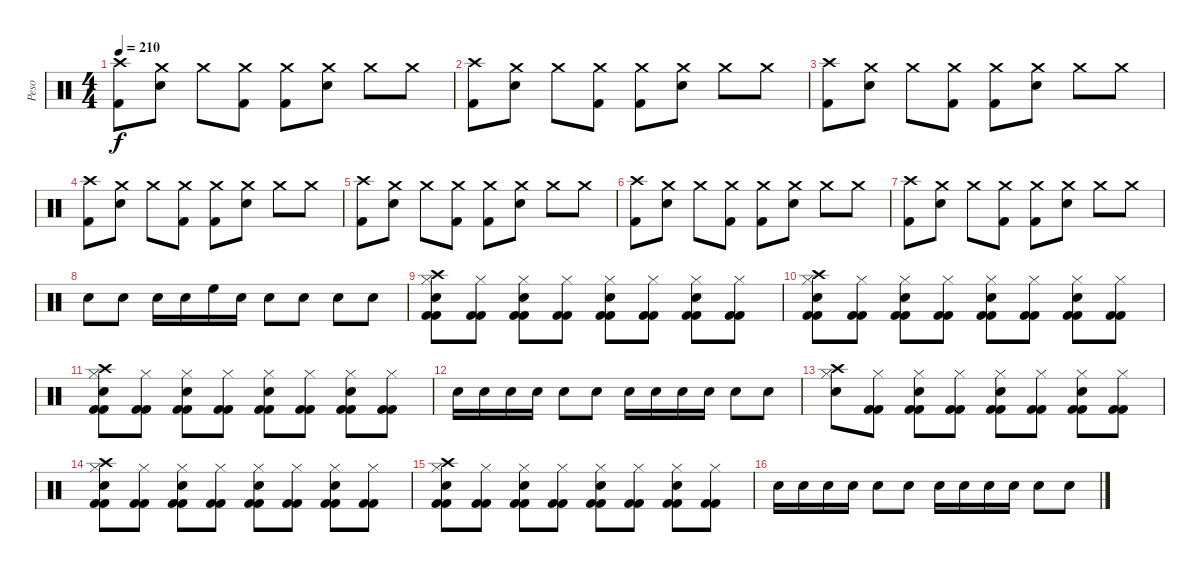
\track ("Peso" "Peso") {instrument percussion}
\staff {score}
\articulation defaults
\ts (4 4)
\tempo 210
\clef neutral
\ks c
("Crash high (hit)" "Kick (hit) 2").8{dy f} ("Crash medium (hit)"{x} "Snare (hit) 2").8 "Crash medium (hit)".8 ("Crash medium (hit)"{x} "Kick (hit) 2").8 ("Crash medium (hit)" "Kick (hit) 2").8 ("Crash medium (hit)"{x} "Snare (hit) 2").8 "Crash medium (hit)".8 "Crash medium (hit)"{x}.8 |
("Crash high (hit)" "Kick (hit) 2").8 ("Crash medium (hit)"{x} "Snare (hit) 2").8 "Crash medium (hit)".8 ("Crash medium (hit)"{x} "Kick (hit) 2").8 ("Crash medium (hit)" "Kick (hit) 2").8 ("Crash medium (hit)"{x} "Snare (hit) 2").8 "Crash medium (hit)".8 "Crash medium (hit)"{x}.8 |
("Crash high (hit)" "Kick (hit) 2").8 ("Crash medium (hit)"{x} "Snare (hit) 2").8 "Crash medium (hit)".8 ("Crash medium (hit)"{x} "Kick (hit) 2").8 ("Crash medium (hit)" "Kick (hit) 2").8 ("Crash medium (hit)"{x} "Snare (hit) 2").8 "Crash medium (hit)".8 "Crash medium (hit)"{x}.8 |
("Crash high (hit)" "Kick (hit) 2").8 ("Crash medium (hit)"{x} "Snare (hit) 2").8 "Crash medium (hit)".8 ("Crash medium (hit)"{x} "Kick (hit) 2").8 ("Crash medium (hit)" "Kick (hit) 2").8 ("Crash medium (hit)"{x} "Snare (hit) 2").8 "Crash medium (hit)".8 "Crash medium (hit)"{x}.8 |
("Crash high (hit)" "Kick (hit) 2").8 ("Crash medium (hit)"{x} "Snare (hit) 2").8 "Crash medium (hit)".8 ("Crash medium (hit)"{x} "Kick (hit) 2").8 ("Crash medium (hit)" "Kick (hit) 2").8 ("Crash medium (hit)"{x} "Snare (hit) 2").8 "Crash medium (hit)".8 "Crash medium (hit)"{x}.8 |
("Crash high (hit)" "Kick (hit) 2").8 ("Crash medium (hit)"{x} "Snare (hit) 2").8 "Crash medium (hit)".8 ("Crash medium (hit)"{x} "Kick (hit) 2").8 ("Crash medium (hit)" "Kick (hit) 2").8 ("Crash medium (hit)"{x} "Snare (hit) 2").8 "Crash medium (hit)".8 "Crash medium (hit)"{x}.8 |
("Crash high (hit)" "Kick (hit) 2").8 ("Crash medium (hit)"{x} "Snare (hit) 2").8 "Crash medium (hit)".8 ("Crash medium (hit)"{x} "Kick (hit) 2").8 ("Crash medium (hit)" "Kick (hit) 2").8 ("Crash medium (hit)"{x} "Snare (hit) 2").8 "Crash medium (hit)".8 "Crash medium (hit)"{x}.8 |
"Snare (hit) 2".8 "Snare (hit) 2".8 "Snare (hit) 2".16 "Snare (hit) 2".16 "High Floor Tom (hit)".16 "Snare (hit) 2".16 "Snare (hit) 2".8 "Snare (hit) 2".8 "Snare (hit) 2".8 "Snare (hit) 2".8 |
("Crash high (hit)" "Hi-Hat (closed)" "Snare (hit) 2" "Kick (hit) 2" "Kick (hit) 2").8 ("Hi-Hat (closed)" "Kick (hit) 2" "Kick (hit) 2").8 ("Hi-Hat (closed)" "Snare (hit) 2" "Kick (hit) 2" "Kick (hit) 2").8 ("Hi-Hat (closed)" "Kick (hit) 2" "Kick (hit) 2").8 ("Hi-Hat (closed)" "Snare (hit) 2" "Kick (hit) 2" "Kick (hit) 2").8 ("Hi-Hat (closed)" "Kick (hit) 2" "Kick (hit) 2").8 ("Hi-Hat (closed)" "Snare (hit) 2" "Kick (hit) 2" "Kick (hit) 2").8 ("Hi-Hat (closed)" "Kick (hit) 2" "Kick (hit) 2").8 |
("Crash high (hit)" "Hi-Hat (closed)" "Snare (hit) 2" "Kick (hit) 2" "Kick (hit) 2").8 ("Hi-Hat (closed)" "Kick (hit) 2" "Kick (hit) 2").8 ("Hi-Hat (closed)" "Snare (hit) 2" "Kick (hit) 2" "Kick (hit) 2").8 ("Hi-Hat (closed)" "Kick (hit) 2" "Kick (hit) 2").8 ("Hi-Hat (closed)" "Snare (hit) 2" "Kick (hit) 2" "Kick (hit) 2").8 ("Hi-Hat (closed)" "Kick (hit) 2" "Kick (hit) 2").8 ("Hi-Hat (closed)" "Snare (hit) 2" "Kick (hit) 2" "Kick (hit) 2").8 ("Hi-Hat (closed)" "Kick (hit) 2" "Kick (hit) 2").8 |
("Crash high (hit)" "Hi-Hat (closed)" "Snare (hit) 2" "Kick (hit) 2" "Kick (hit) 2").8 ("Hi-Hat (closed)" "Kick (hit) 2" "Kick (hit) 2").8 ("Hi-Hat (closed)" "Snare (hit) 2" "Kick (hit) 2" "Kick (hit) 2").8 ("Hi-Hat (closed)" "Kick (hit) 2" "Kick (hit) 2").8 ("Hi-Hat (closed)" "Snare (hit) 2" "Kick (hit) 2" "Kick (hit) 2").8 ("Hi-Hat (closed)" "Kick (hit) 2" "Kick (hit) 2").8 ("Hi-Hat (closed)" "Snare (hit) 2" "Kick (hit) 2" "Kick (hit) 2").8 ("Hi-Hat (closed)" "Kick (hit) 2" "Kick (hit) 2").8 |
"Snare (hit) 2".16 "Snare (hit) 2".16 "Snare (hit) 2".16 "Snare (hit) 2".16 "Snare (hit) 2".8 "Snare (hit) 2".8 "Snare (hit) 2".16 "Snare (hit) 2".16 "Snare (hit) 2".16 "Snare (hit) 2".16 "Snare (hit) 2".8 "Snare (hit) 2".8 |
("Crash high (hit)" "Hi-Hat (closed)" "Snare (hit) 2").8 ("Hi-Hat (closed)" "Kick (hit) 2" "Kick (hit) 2").8 ("Hi-Hat (closed)" "Snare (hit) 2" "Kick (hit) 2" "Kick (hit) 2").8 ("Hi-Hat (closed)" "Kick (hit) 2" "Kick (hit) 2").8 ("Hi-Hat (closed)" "Snare (hit) 2" "Kick (hit) 2" "Kick (hit) 2").8 ("Hi-Hat (closed)" "Kick (hit) 2" "Kick (hit) 2").8 ("Hi-Hat (closed)" "Snare (hit) 2" "Kick (hit) 2" "Kick (hit) 2").8 ("Hi-Hat (closed)" "Kick (hit) 2" "Kick (hit) 2").8 |
("Crash high (hit)" "Hi-Hat (closed)" "Snare (hit) 2" "Kick (hit) 2" "Kick (hit) 2").8 ("Hi-Hat (closed)" "Kick (hit) 2" "Kick (hit) 2").8 ("Hi-Hat (closed)" "Snare (hit) 2" "Kick (hit) 2" "Kick (hit) 2").8 ("Hi-Hat (closed)" "Kick (hit) 2" "Kick (hit) 2").8 ("Hi-Hat (closed)" "Snare (hit) 2" "Kick (hit) 2" "Kick (hit) 2").8 ("Hi-Hat (closed)" "Kick (hit) 2" "Kick (hit) 2").8 ("Hi-Hat (closed)" "Snare (hit) 2" "Kick (hit) 2" "Kick (hit) 2").8 ("Hi-Hat (closed)" "Kick (hit) 2" "Kick (hit) 2").8 |
("Crash high (hit)" "Hi-Hat (closed)" "Snare (hit) 2" "Kick (hit) 2" "Kick (hit) 2").8 ("Hi-Hat (closed)" "Kick (hit) 2" "Kick (hit) 2").8 ("Hi-Hat (closed)" "Snare (hit) 2" "Kick (hit) 2" "Kick (hit) 2").8 ("Hi-Hat (closed)" "Kick (hit) 2" "Kick (hit) 2").8 ("Hi-Hat (closed)" "Snare (hit) 2" "Kick (hit) 2" "Kick (hit) 2").8 ("Hi-Hat (closed)" "Kick (hit) 2" "Kick (hit) 2").8 ("Hi-Hat (closed)" "Snare (hit) 2" "Kick (hit) 2" "Kick (hit) 2").8 ("Hi-Hat (closed)" "Kick (hit) 2" "Kick (hit) 2").8 |
"Snare (hit) 2".16 "Snare (hit) 2".16 "Snare (hit) 2".16 "Snare (hit) 2".16 "Snare (hit) 2".8 "Snare (hit) 2".8 "Snare (hit) 2".16 "Snare (hit) 2".16 "Snare (hit) 2".16 "Snare (hit) 2".16 "Snare (hit) 2".8 "Snare (hit) 2".8
